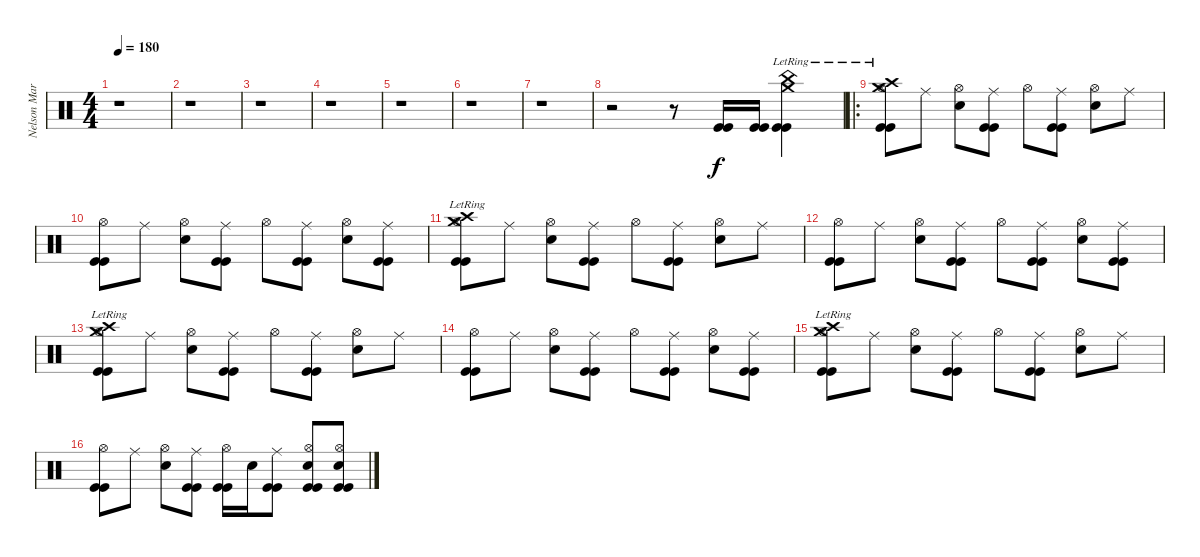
\track ("Nelson Maria" "Nelson Mar") {instrument percussion}
\staff {score}
\articulation defaults
\ts (4 4)
\tempo 180
\clef neutral
\ks c
r.1{dy f} |
r.1 |
r.1 |
r.1 |
r.1 |
r.1 |
r.1 |
r.2 r.8 ("Kick (hit)" "Kick (hit)").16 ("Kick (hit)" "Kick (hit)").16 ("China (hit)"{lr} "Crash medium (hit)"{lr} "Kick (hit)" "Kick (hit)").4 |
\ro
("Crash high (hit)"{lr} "Crash medium (hit)" "Hi-Hat (open)" "Kick (hit)" "Kick (hit)").8 "Ride (middle)".8 ("Snare (hit) 2" "Hi-Hat (open)").8 ("Ride (middle)" "Kick (hit)" "Kick (hit)").8 "Hi-Hat (open)".8 ("Ride (middle)" "Kick (hit)" "Kick (hit)").8 ("Snare (hit) 2" "Hi-Hat (open)").8 "Ride (middle)".8 |
("Hi-Hat (open)" "Kick (hit)" "Kick (hit)").8 "Ride (middle)".8 ("Snare (hit) 2" "Hi-Hat (open)").8 ("Ride (middle)" "Kick (hit)" "Kick (hit)").8 "Hi-Hat (open)".8 ("Ride (middle)" "Kick (hit)" "Kick (hit)").8 ("Snare (hit) 2" "Hi-Hat (open)").8 ("Ride (middle)" "Kick (hit)" "Kick (hit)").8 |
("Crash high (hit)"{lr} "Crash medium (hit)" "Hi-Hat (open)" "Kick (hit)" "Kick (hit)").8 "Ride (middle)".8 ("Snare (hit) 2" "Hi-Hat (open)").8 ("Ride (middle)" "Kick (hit)" "Kick (hit)").8 "Hi-Hat (open)".8 ("Ride (middle)" "Kick (hit)" "Kick (hit)").8 ("Snare (hit) 2" "Hi-Hat (open)").8 "Ride (middle)".8 |
("Hi-Hat (open)" "Kick (hit)" "Kick (hit)").8 "Ride (middle)".8 ("Snare (hit) 2" "Hi-Hat (open)").8 ("Ride (middle)" "Kick (hit)" "Kick (hit)").8 "Hi-Hat (open)".8 ("Ride (middle)" "Kick (hit)" "Kick (hit)").8 ("Snare (hit) 2" "Hi-Hat (open)").8 ("Ride (middle)" "Kick (hit)" "Kick (hit)").8 |
("Crash high (hit)"{lr} "Crash medium (hit)" "Hi-Hat (open)" "Kick (hit)" "Kick (hit)").8 "Ride (middle)".8 ("Snare (hit) 2" "Hi-Hat (open)").8 ("Ride (middle)" "Kick (hit)" "Kick (hit)").8 "Hi-Hat (open)".8 ("Ride (middle)" "Kick (hit)" "Kick (hit)").8 ("Snare (hit) 2" "Hi-Hat (open)").8 "Ride (middle)".8 |
("Hi-Hat (open)" "Kick (hit)" "Kick (hit)").8 "Ride (middle)".8 ("Snare (hit) 2" "Hi-Hat (open)").8 ("Ride (middle)" "Kick (hit)" "Kick (hit)").8 "Hi-Hat (open)".8 ("Ride (middle)" "Kick (hit)" "Kick (hit)").8 ("Snare (hit) 2" "Hi-Hat (open)").8 ("Ride (middle)" "Kick (hit)" "Kick (hit)").8 |
("Crash high (hit)"{lr} "Crash medium (hit)" "Hi-Hat (open)" "Kick (hit)" "Kick (hit)").8 "Ride (middle)".8 ("Snare (hit) 2" "Hi-Hat (open)").8 ("Ride (middle)" "Kick (hit)" "Kick (hit)").8 "Hi-Hat (open)".8 ("Ride (middle)" "Kick (hit)" "Kick (hit)").8 ("Snare (hit) 2" "Hi-Hat (open)").8 "Ride (middle)".8 |
("Hi-Hat (open)" "Kick (hit)" "Kick (hit)").8 "Ride (middle)".8 ("Snare (hit) 2" "Hi-Hat (open)").8 ("Ride (middle)" "Kick (hit)" "Kick (hit)").8 ("Hi-Hat (open)" "Kick (hit)" "Kick (hit)").16 "Snare (hit) 2".16 ("Ride (middle)" "Kick (hit)" "Kick (hit)").8 ("Snare (hit) 2" "Hi-Hat (open)" "Kick (hit)" "Kick (hit)").8 ("Snare (hit) 2" "Hi-Hat (open)" "Kick (hit)" "Kick (hit)").8
